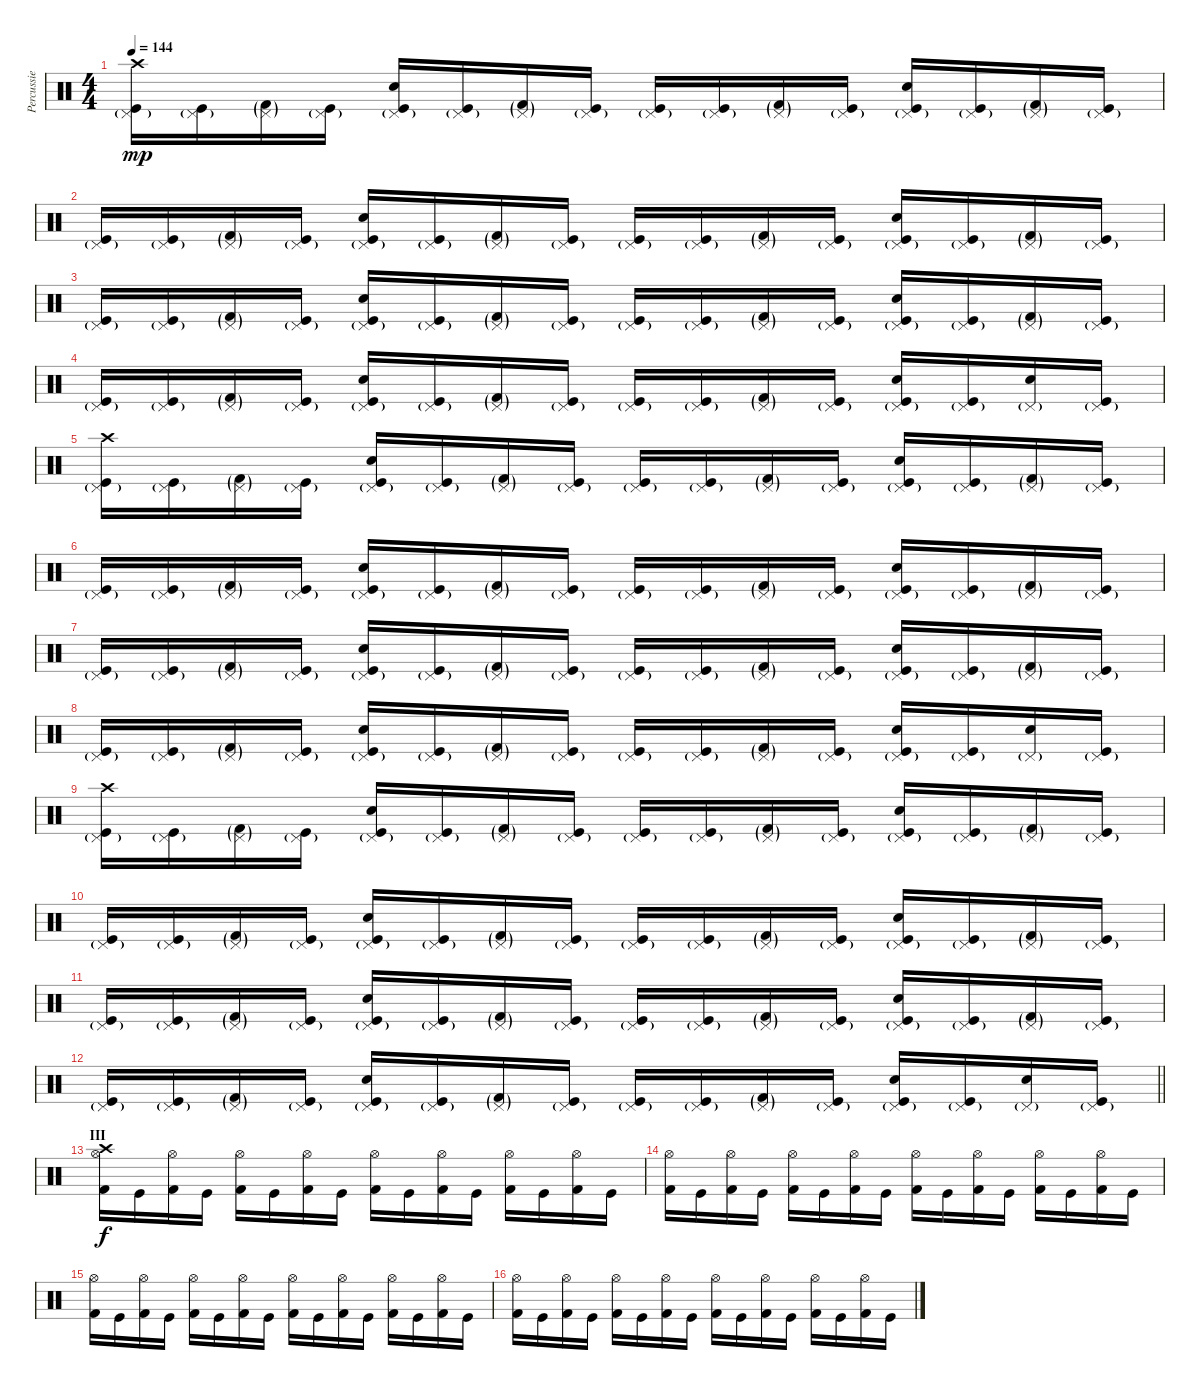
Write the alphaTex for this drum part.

\track ("Percussie" "Percussie") {instrument percussion}
\staff {score}
\articulation defaults
\ts (4 4)
\tempo 144
\clef neutral
\ks c
("Crash high (hit)" "Kick (hit)" "Pedal Hi-Hat (hit)"{g}).16{dy mp} ("Kick (hit)" "Pedal Hi-Hat (hit)"{g}).16 ("Kick (hit) 2"{g} "Pedal Hi-Hat (hit)"{g}).16 ("Kick (hit)" "Pedal Hi-Hat (hit)"{g}).16 ("Snare (hit) 2" "Kick (hit)" "Pedal Hi-Hat (hit)"{g}).16 ("Kick (hit)" "Pedal Hi-Hat (hit)"{g}).16 ("Kick (hit) 2"{g} "Pedal Hi-Hat (hit)"{g}).16 ("Kick (hit)" "Pedal Hi-Hat (hit)"{g}).16 ("Kick (hit)" "Pedal Hi-Hat (hit)"{g}).16 ("Kick (hit)" "Pedal Hi-Hat (hit)"{g}).16 ("Kick (hit) 2"{g} "Pedal Hi-Hat (hit)"{g}).16 ("Kick (hit)" "Pedal Hi-Hat (hit)"{g}).16 ("Snare (hit) 2" "Kick (hit)" "Pedal Hi-Hat (hit)"{g}).16 ("Kick (hit)" "Pedal Hi-Hat (hit)"{g}).16 ("Kick (hit) 2"{g} "Pedal Hi-Hat (hit)"{g}).16 ("Kick (hit)" "Pedal Hi-Hat (hit)"{g}).16 |
("Kick (hit)" "Pedal Hi-Hat (hit)"{g}).16 ("Kick (hit)" "Pedal Hi-Hat (hit)"{g}).16 ("Kick (hit) 2"{g} "Pedal Hi-Hat (hit)"{g}).16 ("Kick (hit)" "Pedal Hi-Hat (hit)"{g}).16 ("Snare (hit) 2" "Kick (hit)" "Pedal Hi-Hat (hit)"{g}).16 ("Kick (hit)" "Pedal Hi-Hat (hit)"{g}).16 ("Kick (hit) 2"{g} "Pedal Hi-Hat (hit)"{g}).16 ("Kick (hit)" "Pedal Hi-Hat (hit)"{g}).16 ("Kick (hit)" "Pedal Hi-Hat (hit)"{g}).16 ("Kick (hit)" "Pedal Hi-Hat (hit)"{g}).16 ("Kick (hit) 2"{g} "Pedal Hi-Hat (hit)"{g}).16 ("Kick (hit)" "Pedal Hi-Hat (hit)"{g}).16 ("Snare (hit) 2" "Kick (hit)" "Pedal Hi-Hat (hit)"{g}).16 ("Kick (hit)" "Pedal Hi-Hat (hit)"{g}).16 ("Kick (hit) 2"{g} "Pedal Hi-Hat (hit)"{g}).16 ("Kick (hit)" "Pedal Hi-Hat (hit)"{g}).16 |
("Kick (hit)" "Pedal Hi-Hat (hit)"{g}).16 ("Kick (hit)" "Pedal Hi-Hat (hit)"{g}).16 ("Kick (hit) 2"{g} "Pedal Hi-Hat (hit)"{g}).16 ("Kick (hit)" "Pedal Hi-Hat (hit)"{g}).16 ("Snare (hit) 2" "Kick (hit)" "Pedal Hi-Hat (hit)"{g}).16 ("Kick (hit)" "Pedal Hi-Hat (hit)"{g}).16 ("Kick (hit) 2"{g} "Pedal Hi-Hat (hit)"{g}).16 ("Kick (hit)" "Pedal Hi-Hat (hit)"{g}).16 ("Kick (hit)" "Pedal Hi-Hat (hit)"{g}).16 ("Kick (hit)" "Pedal Hi-Hat (hit)"{g}).16 ("Kick (hit) 2"{g} "Pedal Hi-Hat (hit)"{g}).16 ("Kick (hit)" "Pedal Hi-Hat (hit)"{g}).16 ("Snare (hit) 2" "Kick (hit)" "Pedal Hi-Hat (hit)"{g}).16 ("Kick (hit)" "Pedal Hi-Hat (hit)"{g}).16 ("Kick (hit) 2"{g} "Pedal Hi-Hat (hit)"{g}).16 ("Kick (hit)" "Pedal Hi-Hat (hit)"{g}).16 |
("Kick (hit)" "Pedal Hi-Hat (hit)"{g}).16 ("Kick (hit)" "Pedal Hi-Hat (hit)"{g}).16 ("Kick (hit) 2"{g} "Pedal Hi-Hat (hit)"{g}).16 ("Kick (hit)" "Pedal Hi-Hat (hit)"{g}).16 ("Snare (hit) 2" "Kick (hit)" "Pedal Hi-Hat (hit)"{g}).16 ("Kick (hit)" "Pedal Hi-Hat (hit)"{g}).16 ("Kick (hit) 2"{g} "Pedal Hi-Hat (hit)"{g}).16 ("Kick (hit)" "Pedal Hi-Hat (hit)"{g}).16 ("Kick (hit)" "Pedal Hi-Hat (hit)"{g}).16 ("Kick (hit)" "Pedal Hi-Hat (hit)"{g}).16 ("Kick (hit) 2"{g} "Pedal Hi-Hat (hit)"{g}).16 ("Kick (hit)" "Pedal Hi-Hat (hit)"{g}).16 ("Snare (hit) 2" "Kick (hit)" "Pedal Hi-Hat (hit)"{g}).16 ("Kick (hit)" "Pedal Hi-Hat (hit)"{g}).16 ("Snare (hit) 2" "Pedal Hi-Hat (hit)"{g}).16 ("Kick (hit)" "Pedal Hi-Hat (hit)"{g}).16 |
("Crash high (hit)" "Kick (hit)" "Pedal Hi-Hat (hit)"{g}).16 ("Kick (hit)" "Pedal Hi-Hat (hit)"{g}).16 ("Kick (hit) 2"{g} "Pedal Hi-Hat (hit)"{g}).16 ("Kick (hit)" "Pedal Hi-Hat (hit)"{g}).16 ("Snare (hit) 2" "Kick (hit)" "Pedal Hi-Hat (hit)"{g}).16 ("Kick (hit)" "Pedal Hi-Hat (hit)"{g}).16 ("Kick (hit) 2"{g} "Pedal Hi-Hat (hit)"{g}).16 ("Kick (hit)" "Pedal Hi-Hat (hit)"{g}).16 ("Kick (hit)" "Pedal Hi-Hat (hit)"{g}).16 ("Kick (hit)" "Pedal Hi-Hat (hit)"{g}).16 ("Kick (hit) 2"{g} "Pedal Hi-Hat (hit)"{g}).16 ("Kick (hit)" "Pedal Hi-Hat (hit)"{g}).16 ("Snare (hit) 2" "Kick (hit)" "Pedal Hi-Hat (hit)"{g}).16 ("Kick (hit)" "Pedal Hi-Hat (hit)"{g}).16 ("Kick (hit) 2"{g} "Pedal Hi-Hat (hit)"{g}).16 ("Kick (hit)" "Pedal Hi-Hat (hit)"{g}).16 |
("Kick (hit)" "Pedal Hi-Hat (hit)"{g}).16 ("Kick (hit)" "Pedal Hi-Hat (hit)"{g}).16 ("Kick (hit) 2"{g} "Pedal Hi-Hat (hit)"{g}).16 ("Kick (hit)" "Pedal Hi-Hat (hit)"{g}).16 ("Snare (hit) 2" "Kick (hit)" "Pedal Hi-Hat (hit)"{g}).16 ("Kick (hit)" "Pedal Hi-Hat (hit)"{g}).16 ("Kick (hit) 2"{g} "Pedal Hi-Hat (hit)"{g}).16 ("Kick (hit)" "Pedal Hi-Hat (hit)"{g}).16 ("Kick (hit)" "Pedal Hi-Hat (hit)"{g}).16 ("Kick (hit)" "Pedal Hi-Hat (hit)"{g}).16 ("Kick (hit) 2"{g} "Pedal Hi-Hat (hit)"{g}).16 ("Kick (hit)" "Pedal Hi-Hat (hit)"{g}).16 ("Snare (hit) 2" "Kick (hit)" "Pedal Hi-Hat (hit)"{g}).16 ("Kick (hit)" "Pedal Hi-Hat (hit)"{g}).16 ("Kick (hit) 2"{g} "Pedal Hi-Hat (hit)"{g}).16 ("Kick (hit)" "Pedal Hi-Hat (hit)"{g}).16 |
("Kick (hit)" "Pedal Hi-Hat (hit)"{g}).16 ("Kick (hit)" "Pedal Hi-Hat (hit)"{g}).16 ("Kick (hit) 2"{g} "Pedal Hi-Hat (hit)"{g}).16 ("Kick (hit)" "Pedal Hi-Hat (hit)"{g}).16 ("Snare (hit) 2" "Kick (hit)" "Pedal Hi-Hat (hit)"{g}).16 ("Kick (hit)" "Pedal Hi-Hat (hit)"{g}).16 ("Kick (hit) 2"{g} "Pedal Hi-Hat (hit)"{g}).16 ("Kick (hit)" "Pedal Hi-Hat (hit)"{g}).16 ("Kick (hit)" "Pedal Hi-Hat (hit)"{g}).16 ("Kick (hit)" "Pedal Hi-Hat (hit)"{g}).16 ("Kick (hit) 2"{g} "Pedal Hi-Hat (hit)"{g}).16 ("Kick (hit)" "Pedal Hi-Hat (hit)"{g}).16 ("Snare (hit) 2" "Kick (hit)" "Pedal Hi-Hat (hit)"{g}).16 ("Kick (hit)" "Pedal Hi-Hat (hit)"{g}).16 ("Kick (hit) 2"{g} "Pedal Hi-Hat (hit)"{g}).16 ("Kick (hit)" "Pedal Hi-Hat (hit)"{g}).16 |
("Kick (hit)" "Pedal Hi-Hat (hit)"{g}).16 ("Kick (hit)" "Pedal Hi-Hat (hit)"{g}).16 ("Kick (hit) 2"{g} "Pedal Hi-Hat (hit)"{g}).16 ("Kick (hit)" "Pedal Hi-Hat (hit)"{g}).16 ("Snare (hit) 2" "Kick (hit)" "Pedal Hi-Hat (hit)"{g}).16 ("Kick (hit)" "Pedal Hi-Hat (hit)"{g}).16 ("Kick (hit) 2"{g} "Pedal Hi-Hat (hit)"{g}).16 ("Kick (hit)" "Pedal Hi-Hat (hit)"{g}).16 ("Kick (hit)" "Pedal Hi-Hat (hit)"{g}).16 ("Kick (hit)" "Pedal Hi-Hat (hit)"{g}).16 ("Kick (hit) 2"{g} "Pedal Hi-Hat (hit)"{g}).16 ("Kick (hit)" "Pedal Hi-Hat (hit)"{g}).16 ("Snare (hit) 2" "Kick (hit)" "Pedal Hi-Hat (hit)"{g}).16 ("Kick (hit)" "Pedal Hi-Hat (hit)"{g}).16 ("Snare (hit) 2" "Pedal Hi-Hat (hit)"{g}).16 ("Kick (hit)" "Pedal Hi-Hat (hit)"{g}).16 |
("Crash high (hit)" "Kick (hit)" "Pedal Hi-Hat (hit)"{g}).16 ("Kick (hit)" "Pedal Hi-Hat (hit)"{g}).16 ("Kick (hit) 2"{g} "Pedal Hi-Hat (hit)"{g}).16 ("Kick (hit)" "Pedal Hi-Hat (hit)"{g}).16 ("Snare (hit) 2" "Kick (hit)" "Pedal Hi-Hat (hit)"{g}).16 ("Kick (hit)" "Pedal Hi-Hat (hit)"{g}).16 ("Kick (hit) 2"{g} "Pedal Hi-Hat (hit)"{g}).16 ("Kick (hit)" "Pedal Hi-Hat (hit)"{g}).16 ("Kick (hit)" "Pedal Hi-Hat (hit)"{g}).16 ("Kick (hit)" "Pedal Hi-Hat (hit)"{g}).16 ("Kick (hit) 2"{g} "Pedal Hi-Hat (hit)"{g}).16 ("Kick (hit)" "Pedal Hi-Hat (hit)"{g}).16 ("Snare (hit) 2" "Kick (hit)" "Pedal Hi-Hat (hit)"{g}).16 ("Kick (hit)" "Pedal Hi-Hat (hit)"{g}).16 ("Kick (hit) 2"{g} "Pedal Hi-Hat (hit)"{g}).16 ("Kick (hit)" "Pedal Hi-Hat (hit)"{g}).16 |
("Kick (hit)" "Pedal Hi-Hat (hit)"{g}).16 ("Kick (hit)" "Pedal Hi-Hat (hit)"{g}).16 ("Kick (hit) 2"{g} "Pedal Hi-Hat (hit)"{g}).16 ("Kick (hit)" "Pedal Hi-Hat (hit)"{g}).16 ("Snare (hit) 2" "Kick (hit)" "Pedal Hi-Hat (hit)"{g}).16 ("Kick (hit)" "Pedal Hi-Hat (hit)"{g}).16 ("Kick (hit) 2"{g} "Pedal Hi-Hat (hit)"{g}).16 ("Kick (hit)" "Pedal Hi-Hat (hit)"{g}).16 ("Kick (hit)" "Pedal Hi-Hat (hit)"{g}).16 ("Kick (hit)" "Pedal Hi-Hat (hit)"{g}).16 ("Kick (hit) 2"{g} "Pedal Hi-Hat (hit)"{g}).16 ("Kick (hit)" "Pedal Hi-Hat (hit)"{g}).16 ("Snare (hit) 2" "Kick (hit)" "Pedal Hi-Hat (hit)"{g}).16 ("Kick (hit)" "Pedal Hi-Hat (hit)"{g}).16 ("Kick (hit) 2"{g} "Pedal Hi-Hat (hit)"{g}).16 ("Kick (hit)" "Pedal Hi-Hat (hit)"{g}).16 |
("Kick (hit)" "Pedal Hi-Hat (hit)"{g}).16 ("Kick (hit)" "Pedal Hi-Hat (hit)"{g}).16 ("Kick (hit) 2"{g} "Pedal Hi-Hat (hit)"{g}).16 ("Kick (hit)" "Pedal Hi-Hat (hit)"{g}).16 ("Snare (hit) 2" "Kick (hit)" "Pedal Hi-Hat (hit)"{g}).16 ("Kick (hit)" "Pedal Hi-Hat (hit)"{g}).16 ("Kick (hit) 2"{g} "Pedal Hi-Hat (hit)"{g}).16 ("Kick (hit)" "Pedal Hi-Hat (hit)"{g}).16 ("Kick (hit)" "Pedal Hi-Hat (hit)"{g}).16 ("Kick (hit)" "Pedal Hi-Hat (hit)"{g}).16 ("Kick (hit) 2"{g} "Pedal Hi-Hat (hit)"{g}).16 ("Kick (hit)" "Pedal Hi-Hat (hit)"{g}).16 ("Snare (hit) 2" "Kick (hit)" "Pedal Hi-Hat (hit)"{g}).16 ("Kick (hit)" "Pedal Hi-Hat (hit)"{g}).16 ("Kick (hit) 2"{g} "Pedal Hi-Hat (hit)"{g}).16 ("Kick (hit)" "Pedal Hi-Hat (hit)"{g}).16 |
\barLineRight lightlight
("Kick (hit)" "Pedal Hi-Hat (hit)"{g}).16 ("Kick (hit)" "Pedal Hi-Hat (hit)"{g}).16 ("Kick (hit) 2"{g} "Pedal Hi-Hat (hit)"{g}).16 ("Kick (hit)" "Pedal Hi-Hat (hit)"{g}).16 ("Snare (hit) 2" "Kick (hit)" "Pedal Hi-Hat (hit)"{g}).16 ("Kick (hit)" "Pedal Hi-Hat (hit)"{g}).16 ("Kick (hit) 2"{g} "Pedal Hi-Hat (hit)"{g}).16 ("Kick (hit)" "Pedal Hi-Hat (hit)"{g}).16 ("Kick (hit)" "Pedal Hi-Hat (hit)"{g}).16 ("Kick (hit)" "Pedal Hi-Hat (hit)"{g}).16 ("Kick (hit) 2"{g} "Pedal Hi-Hat (hit)"{g}).16 ("Kick (hit)" "Pedal Hi-Hat (hit)"{g}).16 ("Snare (hit) 2" "Kick (hit)" "Pedal Hi-Hat (hit)"{g}).16 ("Kick (hit)" "Pedal Hi-Hat (hit)"{g}).16 ("Snare (hit) 2" "Pedal Hi-Hat (hit)"{g}).16 ("Kick (hit)" "Pedal Hi-Hat (hit)"{g}).16 |
\section ("" "III")
("Crash high (hit)" "Kick (hit) 2" "Hi-Hat (open)").16{dy f} "Kick (hit)".16 ("Kick (hit) 2" "Hi-Hat (open)").16 "Kick (hit)".16 ("Kick (hit) 2" "Hi-Hat (open)").16 "Kick (hit)".16 ("Kick (hit) 2" "Hi-Hat (open)").16 "Kick (hit)".16 ("Kick (hit) 2" "Hi-Hat (open)").16 "Kick (hit)".16 ("Kick (hit) 2" "Hi-Hat (open)").16 "Kick (hit)".16 ("Kick (hit) 2" "Hi-Hat (open)").16 "Kick (hit)".16 ("Kick (hit) 2" "Hi-Hat (open)").16 "Kick (hit)".16 |
("Kick (hit) 2" "Hi-Hat (open)").16 "Kick (hit)".16 ("Kick (hit) 2" "Hi-Hat (open)").16 "Kick (hit)".16 ("Kick (hit) 2" "Hi-Hat (open)").16 "Kick (hit)".16 ("Kick (hit) 2" "Hi-Hat (open)").16 "Kick (hit)".16 ("Kick (hit) 2" "Hi-Hat (open)").16 "Kick (hit)".16 ("Kick (hit) 2" "Hi-Hat (open)").16 "Kick (hit)".16 ("Kick (hit) 2" "Hi-Hat (open)").16 "Kick (hit)".16 ("Kick (hit) 2" "Hi-Hat (open)").16 "Kick (hit)".16 |
("Kick (hit) 2" "Hi-Hat (open)").16 "Kick (hit)".16 ("Kick (hit) 2" "Hi-Hat (open)").16 "Kick (hit)".16 ("Kick (hit) 2" "Hi-Hat (open)").16 "Kick (hit)".16 ("Kick (hit) 2" "Hi-Hat (open)").16 "Kick (hit)".16 ("Kick (hit) 2" "Hi-Hat (open)").16 "Kick (hit)".16 ("Kick (hit) 2" "Hi-Hat (open)").16 "Kick (hit)".16 ("Kick (hit) 2" "Hi-Hat (open)").16 "Kick (hit)".16 ("Kick (hit) 2" "Hi-Hat (open)").16 "Kick (hit)".16 |
("Kick (hit) 2" "Hi-Hat (open)").16 "Kick (hit)".16 ("Kick (hit) 2" "Hi-Hat (open)").16 "Kick (hit)".16 ("Kick (hit) 2" "Hi-Hat (open)").16 "Kick (hit)".16 ("Kick (hit) 2" "Hi-Hat (open)").16 "Kick (hit)".16 ("Kick (hit) 2" "Hi-Hat (open)").16 "Kick (hit)".16 ("Kick (hit) 2" "Hi-Hat (open)").16 "Kick (hit)".16 ("Kick (hit) 2" "Hi-Hat (open)").16 "Kick (hit)".16 ("Kick (hit) 2" "Hi-Hat (open)").16 "Kick (hit)".16
